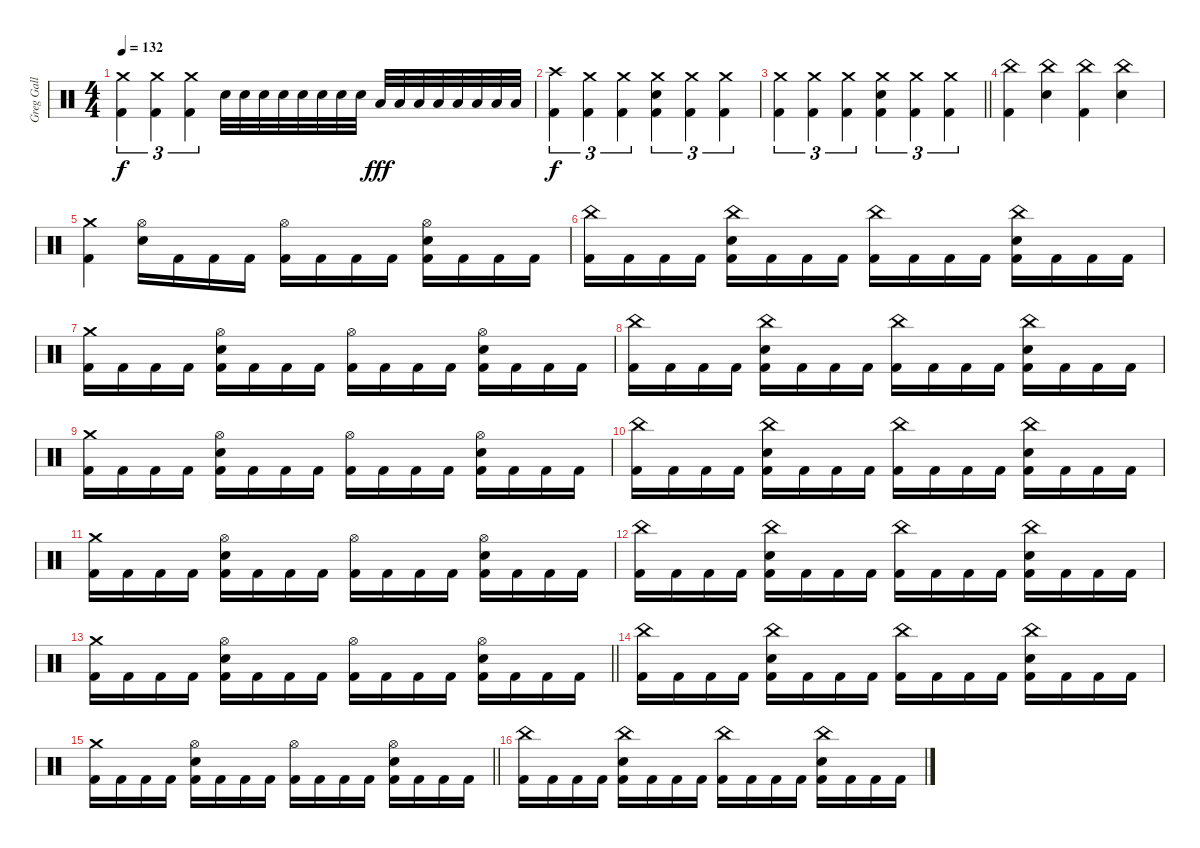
\track ("Greg Gall" "Greg Gall") {instrument percussion}
\staff {score}
\articulation defaults
\ts (4 4)
\tempo 132
\clef neutral
\ks c
("Crash medium (hit)" "Kick (hit) 2").4{tu (3 2) dy f} ("Crash medium (hit)" "Kick (hit) 2").4{tu (3 2)} ("Crash medium (hit)" "Kick (hit) 2").4{tu (3 2)} "Electric Snare (hit)".32 "Electric Snare (hit)".32 "Electric Snare (hit)".32 "Electric Snare (hit)".32 "Electric Snare (hit)".32 "Electric Snare (hit)".32 "Electric Snare (hit)".32 "Electric Snare (hit)".32 "Low Floor Tom (hit)".32{dy fff} "Low Floor Tom (hit)".32 "Low Floor Tom (hit)".32 "Low Floor Tom (hit)".32 "Low Floor Tom (hit)".32 "Low Floor Tom (hit)".32 "Low Floor Tom (hit)".32 "Low Floor Tom (hit)".32 |
("Crash high (hit)" "Kick (hit) 2").4{tu (3 2) dy f} ("Crash medium (hit)" "Kick (hit) 2").4{tu (3 2)} ("Crash medium (hit)" "Kick (hit) 2").4{tu (3 2)} ("Crash medium (hit)" "Electric Snare (hit)" "Kick (hit) 2").4{tu (3 2)} ("Crash medium (hit)" "Kick (hit) 2").4{tu (3 2)} ("Crash medium (hit)" "Kick (hit) 2").4{tu (3 2)} |
\barLineRight lightlight
("Crash medium (hit)" "Kick (hit) 2").4{tu (3 2)} ("Crash medium (hit)" "Kick (hit) 2").4{tu (3 2)} ("Crash medium (hit)" "Kick (hit) 2").4{tu (3 2)} ("Crash medium (hit)" "Electric Snare (hit)" "Kick (hit) 2").4{tu (3 2)} ("Crash medium (hit)" "Kick (hit) 2").4{tu (3 2)} ("Crash medium (hit)" "Kick (hit) 2").4{tu (3 2)} |
("China (hit)" "Kick (hit) 2").4 ("China (hit)" "Electric Snare (hit)").4 ("China (hit)" "Kick (hit) 2").4 ("China (hit)" "Electric Snare (hit)").4 |
("Crash medium (hit)" "Kick (hit) 2").4 ("Hi-Hat (open)" "Electric Snare (hit)").16 "Kick (hit) 2".16 "Kick (hit) 2".16 "Kick (hit) 2".16 ("Hi-Hat (open)" "Kick (hit) 2").16 "Kick (hit) 2".16 "Kick (hit) 2".16 "Kick (hit) 2".16 ("Hi-Hat (open)" "Electric Snare (hit)" "Kick (hit) 2").16 "Kick (hit) 2".16 "Kick (hit) 2".16 "Kick (hit) 2".16 |
("China (hit)" "Kick (hit) 2").16 "Kick (hit) 2".16 "Kick (hit) 2".16 "Kick (hit) 2".16 ("China (hit)" "Electric Snare (hit)" "Kick (hit) 2").16 "Kick (hit) 2".16 "Kick (hit) 2".16 "Kick (hit) 2".16 ("China (hit)" "Kick (hit) 2").16 "Kick (hit) 2".16 "Kick (hit) 2".16 "Kick (hit) 2".16 ("China (hit)" "Electric Snare (hit)" "Kick (hit) 2").16 "Kick (hit) 2".16 "Kick (hit) 2".16 "Kick (hit) 2".16 |
("Crash medium (hit)" "Kick (hit) 2").16 "Kick (hit) 2".16 "Kick (hit) 2".16 "Kick (hit) 2".16 ("Hi-Hat (open)" "Electric Snare (hit)" "Kick (hit) 2").16 "Kick (hit) 2".16 "Kick (hit) 2".16 "Kick (hit) 2".16 ("Hi-Hat (open)" "Kick (hit) 2").16 "Kick (hit) 2".16 "Kick (hit) 2".16 "Kick (hit) 2".16 ("Hi-Hat (open)" "Electric Snare (hit)" "Kick (hit) 2").16 "Kick (hit) 2".16 "Kick (hit) 2".16 "Kick (hit) 2".16 |
("China (hit)" "Kick (hit) 2").16 "Kick (hit) 2".16 "Kick (hit) 2".16 "Kick (hit) 2".16 ("China (hit)" "Electric Snare (hit)" "Kick (hit) 2").16 "Kick (hit) 2".16 "Kick (hit) 2".16 "Kick (hit) 2".16 ("China (hit)" "Kick (hit) 2").16 "Kick (hit) 2".16 "Kick (hit) 2".16 "Kick (hit) 2".16 ("China (hit)" "Electric Snare (hit)" "Kick (hit) 2").16 "Kick (hit) 2".16 "Kick (hit) 2".16 "Kick (hit) 2".16 |
("Crash medium (hit)" "Kick (hit) 2").16 "Kick (hit) 2".16 "Kick (hit) 2".16 "Kick (hit) 2".16 ("Hi-Hat (open)" "Electric Snare (hit)" "Kick (hit) 2").16 "Kick (hit) 2".16 "Kick (hit) 2".16 "Kick (hit) 2".16 ("Hi-Hat (open)" "Kick (hit) 2").16 "Kick (hit) 2".16 "Kick (hit) 2".16 "Kick (hit) 2".16 ("Hi-Hat (open)" "Electric Snare (hit)" "Kick (hit) 2").16 "Kick (hit) 2".16 "Kick (hit) 2".16 "Kick (hit) 2".16 |
("China (hit)" "Kick (hit) 2").16 "Kick (hit) 2".16 "Kick (hit) 2".16 "Kick (hit) 2".16 ("China (hit)" "Electric Snare (hit)" "Kick (hit) 2").16 "Kick (hit) 2".16 "Kick (hit) 2".16 "Kick (hit) 2".16 ("China (hit)" "Kick (hit) 2").16 "Kick (hit) 2".16 "Kick (hit) 2".16 "Kick (hit) 2".16 ("China (hit)" "Electric Snare (hit)" "Kick (hit) 2").16 "Kick (hit) 2".16 "Kick (hit) 2".16 "Kick (hit) 2".16 |
("Crash medium (hit)" "Kick (hit) 2").16 "Kick (hit) 2".16 "Kick (hit) 2".16 "Kick (hit) 2".16 ("Hi-Hat (open)" "Electric Snare (hit)" "Kick (hit) 2").16 "Kick (hit) 2".16 "Kick (hit) 2".16 "Kick (hit) 2".16 ("Hi-Hat (open)" "Kick (hit) 2").16 "Kick (hit) 2".16 "Kick (hit) 2".16 "Kick (hit) 2".16 ("Hi-Hat (open)" "Electric Snare (hit)" "Kick (hit) 2").16 "Kick (hit) 2".16 "Kick (hit) 2".16 "Kick (hit) 2".16 |
("China (hit)" "Kick (hit) 2").16 "Kick (hit) 2".16 "Kick (hit) 2".16 "Kick (hit) 2".16 ("China (hit)" "Electric Snare (hit)" "Kick (hit) 2").16 "Kick (hit) 2".16 "Kick (hit) 2".16 "Kick (hit) 2".16 ("China (hit)" "Kick (hit) 2").16 "Kick (hit) 2".16 "Kick (hit) 2".16 "Kick (hit) 2".16 ("China (hit)" "Electric Snare (hit)" "Kick (hit) 2").16 "Kick (hit) 2".16 "Kick (hit) 2".16 "Kick (hit) 2".16 |
\barLineRight lightlight
("Crash medium (hit)" "Kick (hit) 2").16 "Kick (hit) 2".16 "Kick (hit) 2".16 "Kick (hit) 2".16 ("Hi-Hat (open)" "Electric Snare (hit)" "Kick (hit) 2").16 "Kick (hit) 2".16 "Kick (hit) 2".16 "Kick (hit) 2".16 ("Hi-Hat (open)" "Kick (hit) 2").16 "Kick (hit) 2".16 "Kick (hit) 2".16 "Kick (hit) 2".16 ("Hi-Hat (open)" "Electric Snare (hit)" "Kick (hit) 2").16 "Kick (hit) 2".16 "Kick (hit) 2".16 "Kick (hit) 2".16 |
("China (hit)" "Kick (hit) 2").16 "Kick (hit) 2".16 "Kick (hit) 2".16 "Kick (hit) 2".16 ("China (hit)" "Electric Snare (hit)" "Kick (hit) 2").16 "Kick (hit) 2".16 "Kick (hit) 2".16 "Kick (hit) 2".16 ("China (hit)" "Kick (hit) 2").16 "Kick (hit) 2".16 "Kick (hit) 2".16 "Kick (hit) 2".16 ("China (hit)" "Electric Snare (hit)" "Kick (hit) 2").16 "Kick (hit) 2".16 "Kick (hit) 2".16 "Kick (hit) 2".16 |
\barLineRight lightlight
("Crash medium (hit)" "Kick (hit) 2").16 "Kick (hit) 2".16 "Kick (hit) 2".16 "Kick (hit) 2".16 ("Hi-Hat (open)" "Electric Snare (hit)" "Kick (hit) 2").16 "Kick (hit) 2".16 "Kick (hit) 2".16 "Kick (hit) 2".16 ("Hi-Hat (open)" "Kick (hit) 2").16 "Kick (hit) 2".16 "Kick (hit) 2".16 "Kick (hit) 2".16 ("Hi-Hat (open)" "Electric Snare (hit)" "Kick (hit) 2").16 "Kick (hit) 2".16 "Kick (hit) 2".16 "Kick (hit) 2".16 |
("China (hit)" "Kick (hit) 2").16 "Kick (hit) 2".16 "Kick (hit) 2".16 "Kick (hit) 2".16 ("China (hit)" "Electric Snare (hit)" "Kick (hit) 2").16 "Kick (hit) 2".16 "Kick (hit) 2".16 "Kick (hit) 2".16 ("China (hit)" "Kick (hit) 2").16 "Kick (hit) 2".16 "Kick (hit) 2".16 "Kick (hit) 2".16 ("China (hit)" "Electric Snare (hit)" "Kick (hit) 2").16 "Kick (hit) 2".16 "Kick (hit) 2".16 "Kick (hit) 2".16
